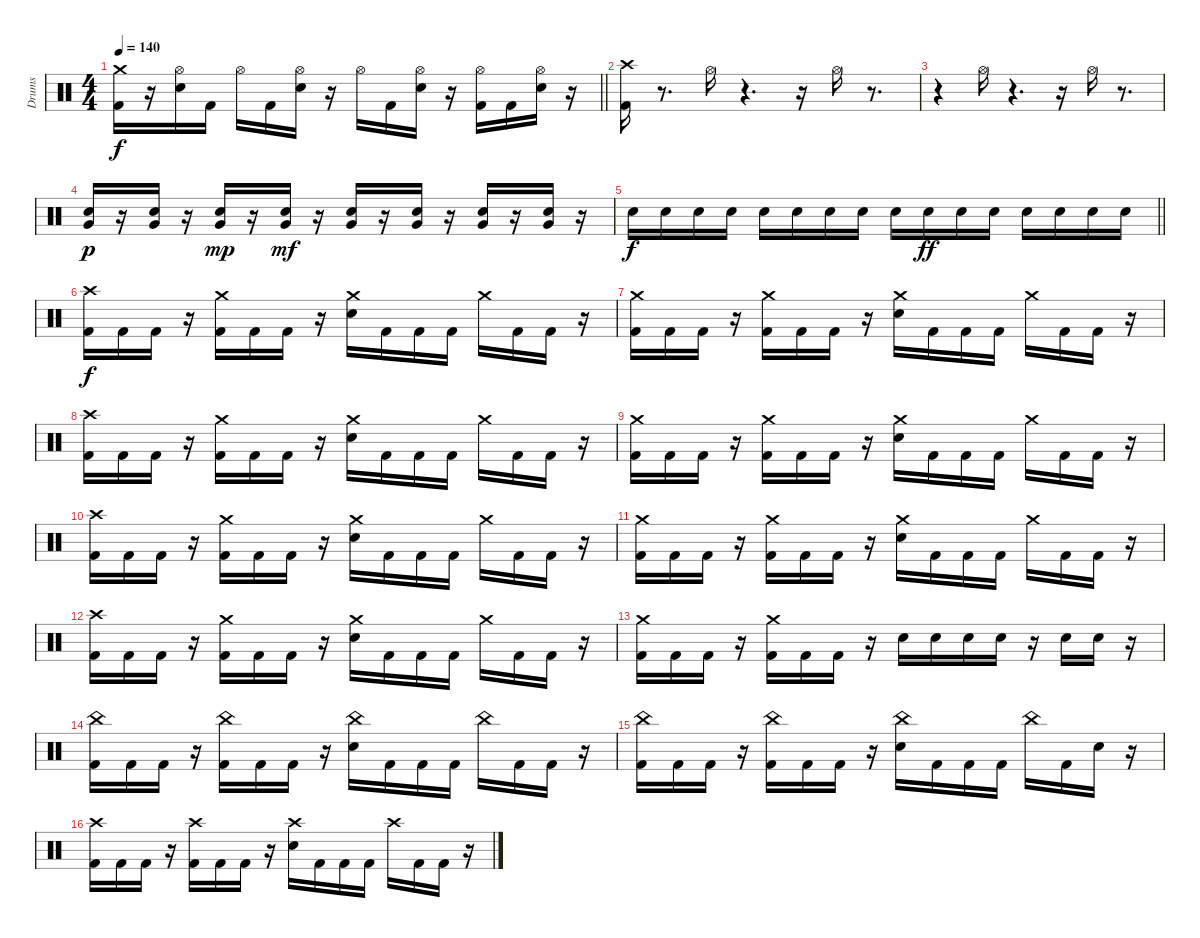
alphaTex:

\track ("Drums" "Drums") {instrument percussion}
\staff {score}
\articulation defaults
\ts (4 4)
\tempo 140
\clef neutral
\barLineRight lightlight
\ks c
("Kick (hit) 2" "Crash medium (hit)").16{dy f} r.16 ("Snare (hit) 2" "Hi-Hat (open)").16 "Kick (hit) 2".16 "Hi-Hat (open)".16 "Kick (hit) 2".16 ("Snare (hit) 2" "Hi-Hat (open)").16 r.16 "Hi-Hat (open)".16 "Kick (hit) 2".16 ("Snare (hit) 2" "Hi-Hat (open)").16 r.16 ("Kick (hit) 2" "Hi-Hat (open)").16 "Kick (hit) 2".16 ("Snare (hit) 2" "Hi-Hat (open)").16 r.16 |
\section ("" " ")
("Kick (hit) 2" "Crash high (hit)").16 r.8{d} "Hi-Hat (open)".16 r.4{d} r.16 "Hi-Hat (open)".16 r.8{d} |
r.4 "Hi-Hat (open)".16 r.4{d} r.16 "Hi-Hat (open)".16 r.8{d} |
("Snare (hit) 2" "Very Low Tom (hit)").16{dy p} r.16 ("Snare (hit) 2" "Very Low Tom (hit)").16 r.16 ("Snare (hit) 2" "Very Low Tom (hit)").16{dy mp} r.16 ("Snare (hit) 2" "Very Low Tom (hit)").16{dy mf} r.16 ("Snare (hit) 2" "Very Low Tom (hit)").16 r.16 ("Snare (hit) 2" "Very Low Tom (hit)").16 r.16 ("Snare (hit) 2" "Very Low Tom (hit)").16 r.16 ("Snare (hit) 2" "Very Low Tom (hit)").16 r.16 |
\barLineRight lightlight "Snare (hit) 2".16{dy f} "Snare (hit) 2".16 "Snare (hit) 2".16 "Snare (hit) 2".16 "Snare (hit) 2".16 "Snare (hit) 2".16 "Snare (hit) 2".16 "Snare (hit) 2".16 "Snare (hit) 2".16 "Snare (hit) 2".16{dy ff} "Snare (hit) 2".16 "Snare (hit) 2".16 "Snare (hit) 2".16 "Snare (hit) 2".16 "Snare (hit) 2".16 "Snare (hit) 2".16
|
\section ("" " ")
("Kick (hit) 2" "Crash high (hit)").16{dy f} "Kick (hit) 2".16 "Kick (hit) 2".16 r.16 ("Kick (hit) 2" "Crash medium (hit)").16 "Kick (hit) 2".16 "Kick (hit) 2".16 r.16 ("Snare (hit) 2" "Crash medium (hit)").16 "Kick (hit) 2".16 "Kick (hit) 2".16 "Kick (hit) 2".16 "Crash medium (hit)".16 "Kick (hit) 2".16 "Kick (hit) 2".16 r.16 |
("Kick (hit) 2" "Crash medium (hit)").16 "Kick (hit) 2".16 "Kick (hit) 2".16 r.16 ("Kick (hit) 2" "Crash medium (hit)").16 "Kick (hit) 2".16 "Kick (hit) 2".16 r.16 ("Snare (hit) 2" "Crash medium (hit)").16 "Kick (hit) 2".16 "Kick (hit) 2".16 "Kick (hit) 2".16 "Crash medium (hit)".16 "Kick (hit) 2".16 "Kick (hit) 2".16 r.16 |
("Kick (hit) 2" "Crash high (hit)").16 "Kick (hit) 2".16 "Kick (hit) 2".16 r.16 ("Kick (hit) 2" "Crash medium (hit)").16 "Kick (hit) 2".16 "Kick (hit) 2".16 r.16 ("Snare (hit) 2" "Crash medium (hit)").16 "Kick (hit) 2".16 "Kick (hit) 2".16 "Kick (hit) 2".16 "Crash medium (hit)".16 "Kick (hit) 2".16 "Kick (hit) 2".16 r.16 |
("Kick (hit) 2" "Crash medium (hit)").16 "Kick (hit) 2".16 "Kick (hit) 2".16 r.16 ("Kick (hit) 2" "Crash medium (hit)").16 "Kick (hit) 2".16 "Kick (hit) 2".16 r.16 ("Snare (hit) 2" "Crash medium (hit)").16 "Kick (hit) 2".16 "Kick (hit) 2".16 "Kick (hit) 2".16 "Crash medium (hit)".16 "Kick (hit) 2".16 "Kick (hit) 2".16 r.16 |
("Kick (hit) 2" "Crash high (hit)").16 "Kick (hit) 2".16 "Kick (hit) 2".16 r.16 ("Kick (hit) 2" "Crash medium (hit)").16 "Kick (hit) 2".16 "Kick (hit) 2".16 r.16 ("Snare (hit) 2" "Crash medium (hit)").16 "Kick (hit) 2".16 "Kick (hit) 2".16 "Kick (hit) 2".16 "Crash medium (hit)".16 "Kick (hit) 2".16 "Kick (hit) 2".16 r.16 |
("Kick (hit) 2" "Crash medium (hit)").16 "Kick (hit) 2".16 "Kick (hit) 2".16 r.16 ("Kick (hit) 2" "Crash medium (hit)").16 "Kick (hit) 2".16 "Kick (hit) 2".16 r.16 ("Snare (hit) 2" "Crash medium (hit)").16 "Kick (hit) 2".16 "Kick (hit) 2".16 "Kick (hit) 2".16 "Crash medium (hit)".16 "Kick (hit) 2".16 "Kick (hit) 2".16 r.16 |
("Kick (hit) 2" "Crash high (hit)").16 "Kick (hit) 2".16 "Kick (hit) 2".16 r.16 ("Kick (hit) 2" "Crash medium (hit)").16 "Kick (hit) 2".16 "Kick (hit) 2".16 r.16 ("Snare (hit) 2" "Crash medium (hit)").16 "Kick (hit) 2".16 "Kick (hit) 2".16 "Kick (hit) 2".16 "Crash medium (hit)".16 "Kick (hit) 2".16 "Kick (hit) 2".16 r.16 |
("Kick (hit) 2" "Crash medium (hit)").16 "Kick (hit) 2".16 "Kick (hit) 2".16 r.16 ("Kick (hit) 2" "Crash medium (hit)").16 "Kick (hit) 2".16 "Kick (hit) 2".16 r.16 "Snare (hit) 2".16 "Snare (hit) 2".16 "Snare (hit) 2".16 "Snare (hit) 2".16 r.16 "Snare (hit) 2".16 "Snare (hit) 2".16 r.16 |
("Kick (hit) 2" "China (hit)").16 "Kick (hit) 2".16 "Kick (hit) 2".16 r.16 ("Kick (hit) 2" "China (hit)").16 "Kick (hit) 2".16 "Kick (hit) 2".16 r.16 ("Snare (hit) 2" "China (hit)").16 "Kick (hit) 2".16 "Kick (hit) 2".16 "Kick (hit) 2".16 "China (hit)".16 "Kick (hit) 2".16 "Kick (hit) 2".16 r.16 |
("Kick (hit) 2" "China (hit)").16 "Kick (hit) 2".16 "Kick (hit) 2".16 r.16 ("Kick (hit) 2" "China (hit)").16 "Kick (hit) 2".16 "Kick (hit) 2".16 r.16 ("Snare (hit) 2" "China (hit)").16 "Kick (hit) 2".16 "Kick (hit) 2".16 "Kick (hit) 2".16 "China (hit)".16 "Kick (hit) 2".16 "Snare (hit) 2".16 r.16 |
("Kick (hit) 2" "Crash high (hit)").16 "Kick (hit) 2".16 "Kick (hit) 2".16 r.16 ("Kick (hit) 2" "Crash high (hit)").16 "Kick (hit) 2".16 "Kick (hit) 2".16 r.16 ("Snare (hit) 2" "Crash high (hit)").16 "Kick (hit) 2".16 "Kick (hit) 2".16 "Kick (hit) 2".16 "Crash high (hit)".16 "Kick (hit) 2".16 "Kick (hit) 2".16 r.16
